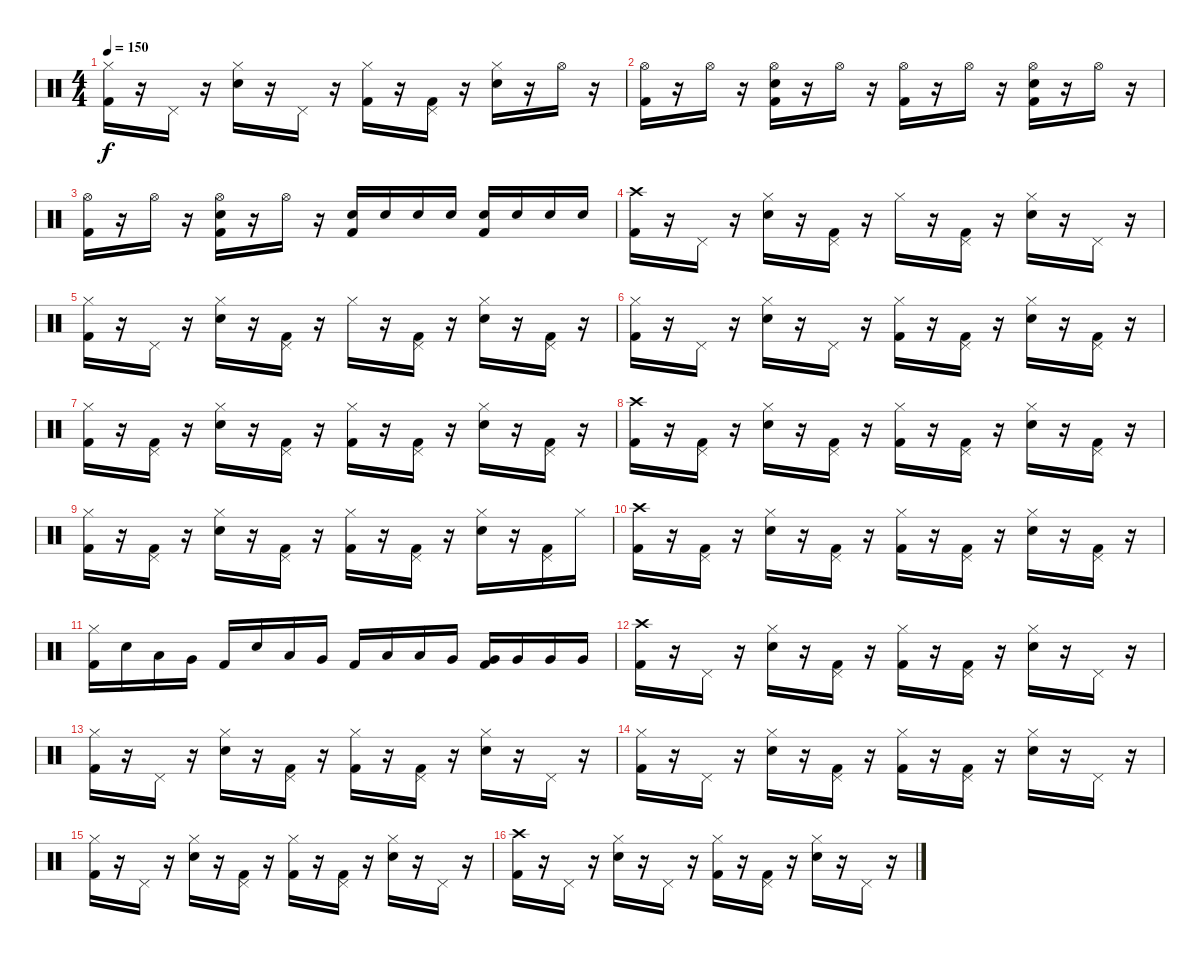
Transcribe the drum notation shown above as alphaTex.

\track "" {instrument percussion}
\staff {score}
\articulation defaults
\ts (4 4)
\tempo 150
\clef neutral
\ks c
("Hi-Hat (closed)" "Kick (hit) 2").16{dy f} r.16 "Pedal Hi-Hat (hit)".16 r.16 ("Electric Snare (hit)" "Hi-Hat (closed)").16 r.16 "Pedal Hi-Hat (hit)".16 r.16 ("Kick (hit) 2" "Hi-Hat (closed)").16 r.16 ("Kick (hit) 2" "Pedal Hi-Hat (hit)").16 r.16 ("Electric Snare (hit)" "Hi-Hat (closed)").16 r.16 "Hi-Hat (open)".16 r.16 |
("Hi-Hat (open)" "Kick (hit) 2").16 r.16 "Hi-Hat (open)".16 r.16 ("Hi-Hat (open)" "Kick (hit) 2" "Electric Snare (hit)").16 r.16 "Hi-Hat (open)".16 r.16 ("Hi-Hat (open)" "Kick (hit) 2").16 r.16 "Hi-Hat (open)".16 r.16 ("Hi-Hat (open)" "Kick (hit) 2" "Electric Snare (hit)").16 r.16 "Hi-Hat (open)".16 r.16 |
("Hi-Hat (open)" "Kick (hit) 2").16 r.16 "Hi-Hat (open)".16 r.16 ("Electric Snare (hit)" "Kick (hit) 2" "Hi-Hat (open)").16 r.16 "Hi-Hat (open)".16 r.16 ("Kick (hit) 2" "Electric Snare (hit)").16 "Electric Snare (hit)".16 "Electric Snare (hit)".16 "Electric Snare (hit)".16 ("Electric Snare (hit)" "Kick (hit) 2").16 "Electric Snare (hit)".16 "Electric Snare (hit)".16 "Electric Snare (hit)".16 |
("Crash high (hit)" "Kick (hit) 2").16 r.16 "Pedal Hi-Hat (hit)".16 r.16 ("Hi-Hat (closed)" "Electric Snare (hit)").16 r.16 ("Pedal Hi-Hat (hit)" "Kick (hit) 2").16 r.16 "Hi-Hat (closed)".16 r.16 ("Pedal Hi-Hat (hit)" "Kick (hit) 2").16 r.16 ("Hi-Hat (closed)" "Electric Snare (hit)").16 r.16 "Pedal Hi-Hat (hit)".16 r.16 |
("Hi-Hat (closed)" "Kick (hit) 2").16 r.16 "Pedal Hi-Hat (hit)".16 r.16 ("Electric Snare (hit)" "Hi-Hat (closed)").16 r.16 ("Kick (hit) 2" "Pedal Hi-Hat (hit)").16 r.16 "Hi-Hat (closed)".16 r.16 ("Kick (hit) 2" "Pedal Hi-Hat (hit)").16 r.16 ("Electric Snare (hit)" "Hi-Hat (closed)").16 r.16 ("Kick (hit) 2" "Pedal Hi-Hat (hit)").16 r.16 |
("Hi-Hat (closed)" "Kick (hit) 2").16 r.16 "Pedal Hi-Hat (hit)".16 r.16 ("Hi-Hat (closed)" "Electric Snare (hit)").16 r.16 "Pedal Hi-Hat (hit)".16 r.16 ("Kick (hit) 2" "Hi-Hat (closed)").16 r.16 ("Pedal Hi-Hat (hit)" "Kick (hit) 2").16 r.16 ("Hi-Hat (closed)" "Electric Snare (hit)").16 r.16 ("Kick (hit) 2" "Pedal Hi-Hat (hit)").16 r.16 |
("Hi-Hat (closed)" "Kick (hit) 2").16 r.16 ("Kick (hit) 2" "Pedal Hi-Hat (hit)").16 r.16 ("Electric Snare (hit)" "Hi-Hat (closed)").16 r.16 ("Kick (hit) 2" "Pedal Hi-Hat (hit)").16 r.16 ("Hi-Hat (closed)" "Kick (hit) 2").16 r.16 ("Kick (hit) 2" "Pedal Hi-Hat (hit)").16 r.16 ("Electric Snare (hit)" "Hi-Hat (closed)").16 r.16 ("Pedal Hi-Hat (hit)" "Kick (hit) 2").16 r.16 |
("Crash high (hit)" "Kick (hit) 2").16 r.16 ("Pedal Hi-Hat (hit)" "Kick (hit) 2").16 r.16 ("Hi-Hat (closed)" "Electric Snare (hit)").16 r.16 ("Pedal Hi-Hat (hit)" "Kick (hit) 2").16 r.16 ("Kick (hit) 2" "Hi-Hat (closed)").16 r.16 ("Pedal Hi-Hat (hit)" "Kick (hit) 2").16 r.16 ("Hi-Hat (closed)" "Electric Snare (hit)").16 r.16 ("Kick (hit) 2" "Pedal Hi-Hat (hit)").16 r.16 |
("Hi-Hat (closed)" "Kick (hit) 2").16 r.16 ("Pedal Hi-Hat (hit)" "Kick (hit) 2").16 r.16 ("Hi-Hat (closed)" "Electric Snare (hit)").16 r.16 ("Pedal Hi-Hat (hit)" "Kick (hit) 2").16 r.16 ("Kick (hit) 2" "Hi-Hat (closed)").16 r.16 ("Pedal Hi-Hat (hit)" "Kick (hit) 2").16 r.16 ("Hi-Hat (closed)" "Electric Snare (hit)").16 r.16 ("Kick (hit) 2" "Pedal Hi-Hat (hit)").16 "Hi-Hat (closed)".16 |
("Kick (hit) 2" "Crash high (hit)").16 r.16 ("Kick (hit) 2" "Pedal Hi-Hat (hit)").16 r.16 ("Electric Snare (hit)" "Hi-Hat (closed)").16 r.16 ("Kick (hit) 2" "Pedal Hi-Hat (hit)").16 r.16 ("Hi-Hat (closed)" "Kick (hit) 2").16 r.16 ("Kick (hit) 2" "Pedal Hi-Hat (hit)").16 r.16 ("Electric Snare (hit)" "Hi-Hat (closed)").16 r.16 ("Pedal Hi-Hat (hit)" "Kick (hit) 2").16 r.16 |
("Kick (hit) 2" "Hi-Hat (closed)").16 "Electric Snare (hit)".16 "Low Tom (hit)".16 "Very Low Tom (hit)".16 "Kick (hit) 2".16 "Electric Snare (hit)".16 "Low Tom (hit)".16 "Very Low Tom (hit)".16 "Kick (hit) 2".16 "Low Tom (hit)".16 "Low Tom (hit)".16 "Very Low Tom (hit)".16 ("Kick (hit) 2" "Very Low Tom (hit)").16 "Very Low Tom (hit)".16 "Very Low Tom (hit)".16 "Very Low Tom (hit)".16 |
("Crash high (hit)" "Kick (hit) 2").16 r.16 "Pedal Hi-Hat (hit)".16 r.16 ("Hi-Hat (closed)" "Electric Snare (hit)").16 r.16 ("Pedal Hi-Hat (hit)" "Kick (hit) 2").16 r.16 ("Hi-Hat (closed)" "Kick (hit) 2").16 r.16 ("Pedal Hi-Hat (hit)" "Kick (hit) 2").16 r.16 ("Hi-Hat (closed)" "Electric Snare (hit)").16 r.16 "Pedal Hi-Hat (hit)".16 r.16 |
("Hi-Hat (closed)" "Kick (hit) 2").16 r.16 "Pedal Hi-Hat (hit)".16 r.16 ("Electric Snare (hit)" "Hi-Hat (closed)").16 r.16 ("Kick (hit) 2" "Pedal Hi-Hat (hit)").16 r.16 ("Kick (hit) 2" "Hi-Hat (closed)").16 r.16 ("Kick (hit) 2" "Pedal Hi-Hat (hit)").16 r.16 ("Electric Snare (hit)" "Hi-Hat (closed)").16 r.16 "Pedal Hi-Hat (hit)".16 r.16 |
("Hi-Hat (closed)" "Kick (hit) 2").16 r.16 "Pedal Hi-Hat (hit)".16 r.16 ("Hi-Hat (closed)" "Electric Snare (hit)").16 r.16 ("Pedal Hi-Hat (hit)" "Kick (hit) 2").16 r.16 ("Hi-Hat (closed)" "Kick (hit) 2").16 r.16 ("Pedal Hi-Hat (hit)" "Kick (hit) 2").16 r.16 ("Hi-Hat (closed)" "Electric Snare (hit)").16 r.16 "Pedal Hi-Hat (hit)".16 r.16 |
("Hi-Hat (closed)" "Kick (hit) 2").16 r.16 "Pedal Hi-Hat (hit)".16 r.16 ("Electric Snare (hit)" "Hi-Hat (closed)").16 r.16 ("Kick (hit) 2" "Pedal Hi-Hat (hit)").16 r.16 ("Kick (hit) 2" "Hi-Hat (closed)").16 r.16 ("Kick (hit) 2" "Pedal Hi-Hat (hit)").16 r.16 ("Electric Snare (hit)" "Hi-Hat (closed)").16 r.16 "Pedal Hi-Hat (hit)".16 r.16 |
("Crash high (hit)" "Kick (hit) 2").16 r.16 "Pedal Hi-Hat (hit)".16 r.16 ("Hi-Hat (closed)" "Electric Snare (hit)").16 r.16 "Pedal Hi-Hat (hit)".16 r.16 ("Hi-Hat (closed)" "Kick (hit) 2").16 r.16 ("Pedal Hi-Hat (hit)" "Kick (hit) 2").16 r.16 ("Hi-Hat (closed)" "Electric Snare (hit)").16 r.16 "Pedal Hi-Hat (hit)".16 r.16
